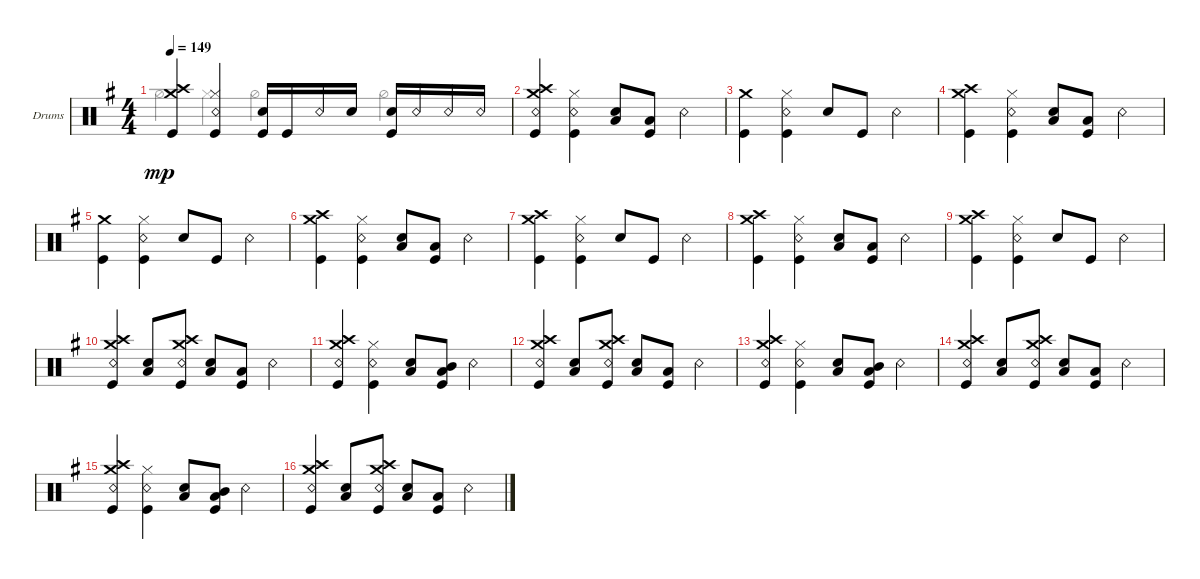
\defaultSystemsLayout 4
\bracketExtendMode groupsimilarinstruments
\firstSystemTrackNameOrientation horizontal
\otherSystemsTrackNameOrientation horizontal
\track ("Drumkit" "Drums") {instrument percussion}
\staff {score}
\articulation defaults
\voice
\ts (4 4)
\tempo 149
\clef neutral
\ks eminor
("Kick (hit)" "Crash medium (hit)" "Crash high (hit)").4{dy mp} ("Snare (rim shot)" "Hi-Hat (closed)" "Kick (hit)").4 ("Snare (hit) 2" "Kick (hit)").16 "Kick (hit)".16 "Snare (rim shot)".16 "Snare (hit) 2".16 ("Snare (hit) 2" "Kick (hit)").16 "Snare (rim shot)".16 "Snare (rim shot)".16 "Snare (rim shot)".16 |
("Kick (hit)" "Crash high (hit)" "Crash medium (hit)" "Snare (rim shot)").4 ("Snare (rim shot)" "Hi-Hat (closed)" "Kick (hit)").4 ("Snare (hit) 2" "Low Tom (hit)").8 ("Kick (hit)" "Low Tom (hit)").8 "Snare (rim shot)".4 |
("Kick (hit)" "Crash medium (hit)").4 ("Snare (rim shot)" "Hi-Hat (closed)" "Kick (hit)").4 "Snare (hit) 2".8 "Kick (hit)".8 "Snare (rim shot)".4 |
("Kick (hit)" "Crash medium (hit)" "Crash high (hit)").4 ("Snare (rim shot)" "Hi-Hat (closed)" "Kick (hit)").4 ("Snare (hit) 2" "Low Tom (hit)").8 ("Kick (hit)" "Low Tom (hit)").8 "Snare (rim shot)".4 |
("Kick (hit)" "Crash medium (hit)").4 ("Snare (rim shot)" "Hi-Hat (closed)" "Kick (hit)").4 "Snare (hit) 2".8 "Kick (hit)".8 "Snare (rim shot)".4 |
("Kick (hit)" "Crash medium (hit)" "Crash high (hit)").4 ("Snare (rim shot)" "Hi-Hat (closed)" "Kick (hit)").4 ("Snare (hit) 2" "Low Tom (hit)").8 ("Kick (hit)" "Low Tom (hit)").8 "Snare (rim shot)".4 |
("Kick (hit)" "Crash medium (hit)" "Crash high (hit)").4 ("Snare (rim shot)" "Hi-Hat (closed)" "Kick (hit)").4 "Snare (hit) 2".8 "Kick (hit)".8 "Snare (rim shot)".4 |
("Kick (hit)" "Crash medium (hit)" "Crash high (hit)").4 ("Snare (rim shot)" "Hi-Hat (closed)" "Kick (hit)").4 ("Snare (hit) 2" "Low Tom (hit)").8 ("Kick (hit)" "Low Tom (hit)").8 "Snare (rim shot)".4 |
("Kick (hit)" "Crash medium (hit)" "Crash high (hit)").4 ("Snare (rim shot)" "Hi-Hat (closed)" "Kick (hit)").4 "Snare (hit) 2".8 "Kick (hit)".8 "Snare (rim shot)".4 |
("Kick (hit)" "Crash high (hit)" "Crash medium (hit)" "Snare (rim shot)").4 ("Low Tom (hit)" "Snare (hit) 2").8 ("Kick (hit)" "Snare (rim shot)" "Crash medium (hit)" "Crash high (hit)").8 ("Snare (hit) 2" "Low Tom (hit)").8 ("Kick (hit)" "Low Tom (hit)").8 "Snare (rim shot)".4 |
("Kick (hit)" "Crash high (hit)" "Crash medium (hit)" "Snare (rim shot)").4 ("Snare (rim shot)" "Hi-Hat (closed)" "Kick (hit)").4 ("Snare (hit) 2" "Low Tom (hit)").8 ("Kick (hit)" "Low Tom (hit)" "Mid Tom (hit)").8 "Snare (rim shot)".4 |
("Kick (hit)" "Crash high (hit)" "Crash medium (hit)" "Snare (rim shot)").4 ("Low Tom (hit)" "Snare (hit) 2").8 ("Kick (hit)" "Snare (rim shot)" "Crash medium (hit)" "Crash high (hit)").8 ("Snare (hit) 2" "Low Tom (hit)").8 ("Kick (hit)" "Low Tom (hit)").8 "Snare (rim shot)".4 |
("Kick (hit)" "Crash high (hit)" "Crash medium (hit)" "Snare (rim shot)").4 ("Snare (rim shot)" "Hi-Hat (closed)" "Kick (hit)").4 ("Snare (hit) 2" "Low Tom (hit)").8 ("Kick (hit)" "Low Tom (hit)" "Mid Tom (hit)").8 "Snare (rim shot)".4 |
("Kick (hit)" "Crash high (hit)" "Crash medium (hit)" "Snare (rim shot)").4 ("Low Tom (hit)" "Snare (hit) 2").8 ("Kick (hit)" "Snare (rim shot)" "Crash medium (hit)" "Crash high (hit)").8 ("Snare (hit) 2" "Low Tom (hit)").8 ("Kick (hit)" "Low Tom (hit)").8 "Snare (rim shot)".4 |
("Kick (hit)" "Crash high (hit)" "Crash medium (hit)" "Snare (rim shot)").4 ("Snare (rim shot)" "Hi-Hat (closed)" "Kick (hit)").4 ("Snare (hit) 2" "Low Tom (hit)").8 ("Kick (hit)" "Low Tom (hit)" "Mid Tom (hit)").8 "Snare (rim shot)".4 |
("Kick (hit)" "Crash high (hit)" "Crash medium (hit)" "Snare (rim shot)").4 ("Low Tom (hit)" "Snare (hit) 2").8 ("Kick (hit)" "Snare (rim shot)" "Crash medium (hit)" "Crash high (hit)").8 ("Snare (hit) 2" "Low Tom (hit)").8 ("Kick (hit)" "Low Tom (hit)").8 "Snare (rim shot)".4
\voice
\clef neutral
\ottava regular
\simile none
\ks eminor "Hi-Hat (half)".4{dy mp} "Hi-Hat (closed)".4 "Hi-Hat (half)".4 "Hi-Hat (half)".4
|
|
|
|
|
|
|
|
|
|
|
|
|
|
|
